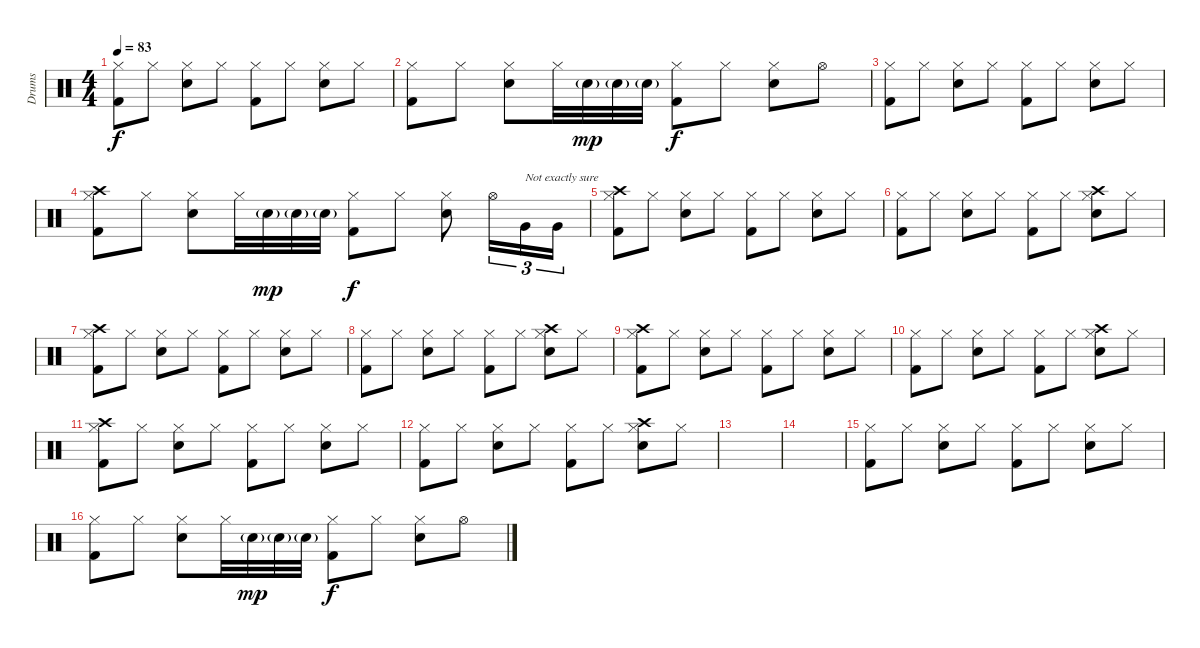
\track ("Drums" "Drums") {instrument percussion}
\staff {score}
\articulation defaults
\ts (4 4)
\tempo 83
\clef neutral
\ks c
("Hi-Hat (closed)" "Kick (hit) 2").8{dy f} "Hi-Hat (closed)".8 ("Hi-Hat (closed)" "Snare (hit) 2").8 "Hi-Hat (closed)".8 ("Hi-Hat (closed)" "Kick (hit) 2").8 "Hi-Hat (closed)".8 ("Hi-Hat (closed)" "Snare (hit) 2").8 "Hi-Hat (closed)".8 |
("Hi-Hat (closed)" "Kick (hit) 2").8 "Hi-Hat (closed)".8 ("Hi-Hat (closed)" "Snare (hit) 2").8 "Hi-Hat (closed)".32 "Snare (hit) 2"{g}.32{dy mp} "Snare (hit) 2"{g}.32 "Snare (hit) 2"{g}.32 ("Hi-Hat (closed)" "Kick (hit) 2").8{dy f} "Hi-Hat (closed)".8 ("Hi-Hat (closed)" "Snare (hit) 2").8 "Hi-Hat (open)".8 |
("Hi-Hat (closed)" "Kick (hit) 2").8 "Hi-Hat (closed)".8 ("Hi-Hat (closed)" "Snare (hit) 2").8 "Hi-Hat (closed)".8 ("Hi-Hat (closed)" "Kick (hit) 2").8 "Hi-Hat (closed)".8 ("Hi-Hat (closed)" "Snare (hit) 2").8 "Hi-Hat (closed)".8 |
("Crash high (hit)" "Hi-Hat (closed)" "Kick (hit) 2").8 "Hi-Hat (closed)".8 ("Hi-Hat (closed)" "Snare (hit) 2").8 "Hi-Hat (closed)".32 "Snare (hit) 2"{g}.32{dy mp} "Snare (hit) 2"{g}.32 "Snare (hit) 2"{g}.32 ("Hi-Hat (closed)" "Kick (hit) 2").8{dy f} "Hi-Hat (closed)".8 ("Hi-Hat (closed)" "Snare (hit) 2").8 "Hi-Hat (open)".16{tu (3 2)} "Very Low Tom (hit)".16{tu (3 2) txt "Not exactly sure"} "Very Low Tom (hit)".16{tu (3 2)} |
("Crash high (hit)" "Hi-Hat (closed)" "Kick (hit) 2").8 "Hi-Hat (closed)".8 ("Hi-Hat (closed)" "Snare (hit) 2").8 "Hi-Hat (closed)".8 ("Hi-Hat (closed)" "Kick (hit) 2").8 "Hi-Hat (closed)".8 ("Hi-Hat (closed)" "Snare (hit) 2").8 "Hi-Hat (closed)".8 |
("Hi-Hat (closed)" "Kick (hit) 2").8 "Hi-Hat (closed)".8 ("Hi-Hat (closed)" "Snare (hit) 2").8 "Hi-Hat (closed)".8 ("Hi-Hat (closed)" "Kick (hit) 2").8 "Hi-Hat (closed)".8 ("Crash high (hit)" "Hi-Hat (closed)" "Snare (hit) 2").8 "Hi-Hat (closed)".8 |
("Crash high (hit)" "Hi-Hat (closed)" "Kick (hit) 2").8 "Hi-Hat (closed)".8 ("Hi-Hat (closed)" "Snare (hit) 2").8 "Hi-Hat (closed)".8 ("Hi-Hat (closed)" "Kick (hit) 2").8 "Hi-Hat (closed)".8 ("Hi-Hat (closed)" "Snare (hit) 2").8 "Hi-Hat (closed)".8 |
("Hi-Hat (closed)" "Kick (hit) 2").8 "Hi-Hat (closed)".8 ("Hi-Hat (closed)" "Snare (hit) 2").8 "Hi-Hat (closed)".8 ("Hi-Hat (closed)" "Kick (hit) 2").8 "Hi-Hat (closed)".8 ("Crash high (hit)" "Hi-Hat (closed)" "Snare (hit) 2").8 "Hi-Hat (closed)".8 |
("Crash high (hit)" "Hi-Hat (closed)" "Kick (hit) 2").8 "Hi-Hat (closed)".8 ("Hi-Hat (closed)" "Snare (hit) 2").8 "Hi-Hat (closed)".8 ("Hi-Hat (closed)" "Kick (hit) 2").8 "Hi-Hat (closed)".8 ("Hi-Hat (closed)" "Snare (hit) 2").8 "Hi-Hat (closed)".8 |
("Hi-Hat (closed)" "Kick (hit) 2").8 "Hi-Hat (closed)".8 ("Hi-Hat (closed)" "Snare (hit) 2").8 "Hi-Hat (closed)".8 ("Hi-Hat (closed)" "Kick (hit) 2").8 "Hi-Hat (closed)".8 ("Crash high (hit)" "Hi-Hat (closed)" "Snare (hit) 2").8 "Hi-Hat (closed)".8 |
("Crash high (hit)" "Hi-Hat (closed)" "Kick (hit) 2").8 "Hi-Hat (closed)".8 ("Hi-Hat (closed)" "Snare (hit) 2").8 "Hi-Hat (closed)".8 ("Hi-Hat (closed)" "Kick (hit) 2").8 "Hi-Hat (closed)".8 ("Hi-Hat (closed)" "Snare (hit) 2").8 "Hi-Hat (closed)".8 |
("Hi-Hat (closed)" "Kick (hit) 2").8 "Hi-Hat (closed)".8 ("Hi-Hat (closed)" "Snare (hit) 2").8 "Hi-Hat (closed)".8 ("Hi-Hat (closed)" "Kick (hit) 2").8 "Hi-Hat (closed)".8 ("Crash high (hit)" "Hi-Hat (closed)" "Snare (hit) 2").8 "Hi-Hat (closed)".8 |
|
|
("Hi-Hat (closed)" "Kick (hit) 2").8 "Hi-Hat (closed)".8 ("Hi-Hat (closed)" "Snare (hit) 2").8 "Hi-Hat (closed)".8 ("Hi-Hat (closed)" "Kick (hit) 2").8 "Hi-Hat (closed)".8 ("Hi-Hat (closed)" "Snare (hit) 2").8 "Hi-Hat (closed)".8 |
("Hi-Hat (closed)" "Kick (hit) 2").8 "Hi-Hat (closed)".8 ("Hi-Hat (closed)" "Snare (hit) 2").8 "Hi-Hat (closed)".32 "Snare (hit) 2"{g}.32{dy mp} "Snare (hit) 2"{g}.32 "Snare (hit) 2"{g}.32 ("Hi-Hat (closed)" "Kick (hit) 2").8{dy f} "Hi-Hat (closed)".8 ("Hi-Hat (closed)" "Snare (hit) 2").8 "Hi-Hat (open)".8
